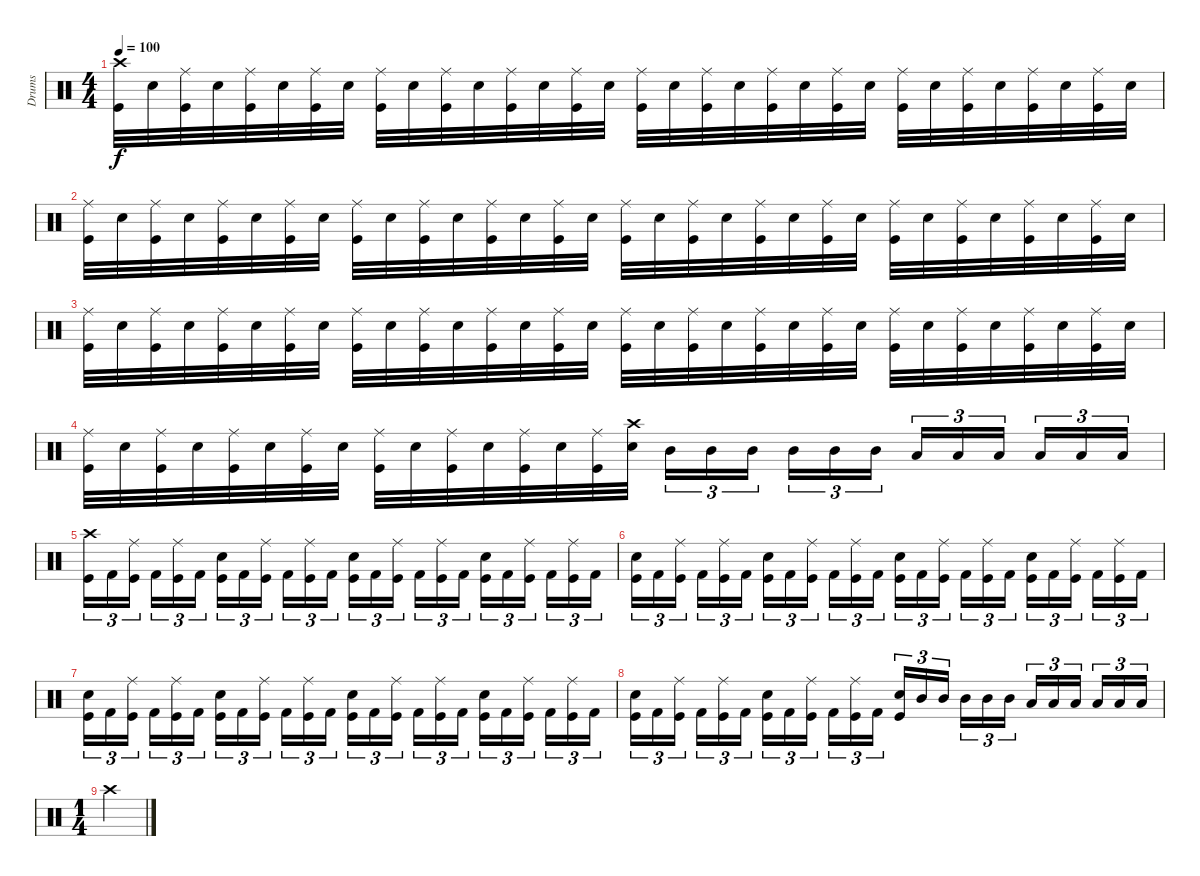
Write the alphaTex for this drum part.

\track ("Drums" "Drums") {instrument percussion}
\staff {score}
\articulation defaults
\ts (4 4)
\tempo 100
\clef neutral
\ks c
("Crash high (hit)" "Kick (hit)").32{dy f} "Snare (hit) 2".32 ("Ride (middle)" "Kick (hit)").32 "Snare (hit) 2".32 ("Ride (middle)" "Kick (hit)").32 "Snare (hit) 2".32 ("Ride (middle)" "Kick (hit)").32 "Snare (hit) 2".32 ("Ride (middle)" "Kick (hit)").32 "Snare (hit) 2".32 ("Ride (middle)" "Kick (hit)").32 "Snare (hit) 2".32 ("Ride (middle)" "Kick (hit)").32 "Snare (hit) 2".32 ("Ride (middle)" "Kick (hit)").32 "Snare (hit) 2".32 ("Ride (middle)" "Kick (hit)").32 "Snare (hit) 2".32 ("Ride (middle)" "Kick (hit)").32 "Snare (hit) 2".32 ("Ride (middle)" "Kick (hit)").32 "Snare (hit) 2".32 ("Ride (middle)" "Kick (hit)").32 "Snare (hit) 2".32 ("Ride (middle)" "Kick (hit)").32 "Snare (hit) 2".32 ("Ride (middle)" "Kick (hit)").32 "Snare (hit) 2".32 ("Ride (middle)" "Kick (hit)").32 "Snare (hit) 2".32 ("Ride (middle)" "Kick (hit)").32 "Snare (hit) 2".32 |
("Ride (middle)" "Kick (hit)").32 "Snare (hit) 2".32 ("Ride (middle)" "Kick (hit)").32 "Snare (hit) 2".32 ("Ride (middle)" "Kick (hit)").32 "Snare (hit) 2".32 ("Ride (middle)" "Kick (hit)").32 "Snare (hit) 2".32 ("Ride (middle)" "Kick (hit)").32 "Snare (hit) 2".32 ("Ride (middle)" "Kick (hit)").32 "Snare (hit) 2".32 ("Ride (middle)" "Kick (hit)").32 "Snare (hit) 2".32 ("Ride (middle)" "Kick (hit)").32 "Snare (hit) 2".32 ("Ride (middle)" "Kick (hit)").32 "Snare (hit) 2".32 ("Ride (middle)" "Kick (hit)").32 "Snare (hit) 2".32 ("Ride (middle)" "Kick (hit)").32 "Snare (hit) 2".32 ("Ride (middle)" "Kick (hit)").32 "Snare (hit) 2".32 ("Ride (middle)" "Kick (hit)").32 "Snare (hit) 2".32 ("Ride (middle)" "Kick (hit)").32 "Snare (hit) 2".32 ("Ride (middle)" "Kick (hit)").32 "Snare (hit) 2".32 ("Ride (middle)" "Kick (hit)").32 "Snare (hit) 2".32 |
("Ride (middle)" "Kick (hit)").32 "Snare (hit) 2".32 ("Ride (middle)" "Kick (hit)").32 "Snare (hit) 2".32 ("Ride (middle)" "Kick (hit)").32 "Snare (hit) 2".32 ("Ride (middle)" "Kick (hit)").32 "Snare (hit) 2".32 ("Ride (middle)" "Kick (hit)").32 "Snare (hit) 2".32 ("Ride (middle)" "Kick (hit)").32 "Snare (hit) 2".32 ("Ride (middle)" "Kick (hit)").32 "Snare (hit) 2".32 ("Ride (middle)" "Kick (hit)").32 "Snare (hit) 2".32 ("Ride (middle)" "Kick (hit)").32 "Snare (hit) 2".32 ("Ride (middle)" "Kick (hit)").32 "Snare (hit) 2".32 ("Ride (middle)" "Kick (hit)").32 "Snare (hit) 2".32 ("Ride (middle)" "Kick (hit)").32 "Snare (hit) 2".32 ("Ride (middle)" "Kick (hit)").32 "Snare (hit) 2".32 ("Ride (middle)" "Kick (hit)").32 "Snare (hit) 2".32 ("Ride (middle)" "Kick (hit)").32 "Snare (hit) 2".32 ("Ride (middle)" "Kick (hit)").32 "Snare (hit) 2".32 |
("Ride (middle)" "Kick (hit)").32 "Snare (hit) 2".32 ("Ride (middle)" "Kick (hit)").32 "Snare (hit) 2".32 ("Ride (middle)" "Kick (hit)").32 "Snare (hit) 2".32 ("Ride (middle)" "Kick (hit)").32 "Snare (hit) 2".32 ("Ride (middle)" "Kick (hit)").32 "Snare (hit) 2".32 ("Ride (middle)" "Kick (hit)").32 "Snare (hit) 2".32 ("Ride (middle)" "Kick (hit)").32 "Snare (hit) 2".32 ("Ride (middle)" "Kick (hit)").32 ("Crash high (hit)" "Snare (hit) 2").32 "Mid Tom (hit)".16{tu (3 2)} "Mid Tom (hit)".16{tu (3 2)} "Mid Tom (hit)".16{tu (3 2)} "Mid Tom (hit)".16{tu (3 2)} "Mid Tom (hit)".16{tu (3 2)} "Mid Tom (hit)".16{tu (3 2)} "Low Floor Tom (hit)".16{tu (3 2)} "Low Floor Tom (hit)".16{tu (3 2)} "Low Floor Tom (hit)".16{tu (3 2)} "Low Floor Tom (hit)".16{tu (3 2)} "Low Floor Tom (hit)".16{tu (3 2)} "Low Floor Tom (hit)".16{tu (3 2)} |
("Crash high (hit)" "Kick (hit)").16{tu (3 2)} "Kick (hit) 2".16{tu (3 2)} ("Ride (middle)" "Kick (hit)").16{tu (3 2)} "Kick (hit) 2".16{tu (3 2)} ("Ride (middle)" "Kick (hit)").16{tu (3 2)} "Kick (hit) 2".16{tu (3 2)} ("Electric Snare (hit)" "Kick (hit)").16{tu (3 2)} "Kick (hit) 2".16{tu (3 2)} ("Ride (middle)" "Kick (hit)").16{tu (3 2)} "Kick (hit) 2".16{tu (3 2)} ("Ride (middle)" "Kick (hit)").16{tu (3 2)} "Kick (hit) 2".16{tu (3 2)} ("Electric Snare (hit)" "Kick (hit)").16{tu (3 2)} "Kick (hit) 2".16{tu (3 2)} ("Ride (middle)" "Kick (hit)").16{tu (3 2)} "Kick (hit) 2".16{tu (3 2)} ("Ride (middle)" "Kick (hit)").16{tu (3 2)} "Kick (hit) 2".16{tu (3 2)} ("Electric Snare (hit)" "Kick (hit)").16{tu (3 2)} "Kick (hit) 2".16{tu (3 2)} ("Ride (middle)" "Kick (hit)").16{tu (3 2)} "Kick (hit) 2".16{tu (3 2)} ("Ride (middle)" "Kick (hit)").16{tu (3 2)} "Kick (hit) 2".16{tu (3 2)} |
("Electric Snare (hit)" "Kick (hit)").16{tu (3 2)} "Kick (hit) 2".16{tu (3 2)} ("Ride (middle)" "Kick (hit)").16{tu (3 2)} "Kick (hit) 2".16{tu (3 2)} ("Ride (middle)" "Kick (hit)").16{tu (3 2)} "Kick (hit) 2".16{tu (3 2)} ("Electric Snare (hit)" "Kick (hit)").16{tu (3 2)} "Kick (hit) 2".16{tu (3 2)} ("Ride (middle)" "Kick (hit)").16{tu (3 2)} "Kick (hit) 2".16{tu (3 2)} ("Ride (middle)" "Kick (hit)").16{tu (3 2)} "Kick (hit) 2".16{tu (3 2)} ("Electric Snare (hit)" "Kick (hit)").16{tu (3 2)} "Kick (hit) 2".16{tu (3 2)} ("Ride (middle)" "Kick (hit)").16{tu (3 2)} "Kick (hit) 2".16{tu (3 2)} ("Ride (middle)" "Kick (hit)").16{tu (3 2)} "Kick (hit) 2".16{tu (3 2)} ("Electric Snare (hit)" "Kick (hit)").16{tu (3 2)} "Kick (hit) 2".16{tu (3 2)} ("Ride (middle)" "Kick (hit)").16{tu (3 2)} "Kick (hit) 2".16{tu (3 2)} ("Ride (middle)" "Kick (hit)").16{tu (3 2)} "Kick (hit) 2".16{tu (3 2)} |
("Electric Snare (hit)" "Kick (hit)").16{tu (3 2)} "Kick (hit) 2".16{tu (3 2)} ("Ride (middle)" "Kick (hit)").16{tu (3 2)} "Kick (hit) 2".16{tu (3 2)} ("Ride (middle)" "Kick (hit)").16{tu (3 2)} "Kick (hit) 2".16{tu (3 2)} ("Electric Snare (hit)" "Kick (hit)").16{tu (3 2)} "Kick (hit) 2".16{tu (3 2)} ("Ride (middle)" "Kick (hit)").16{tu (3 2)} "Kick (hit) 2".16{tu (3 2)} ("Ride (middle)" "Kick (hit)").16{tu (3 2)} "Kick (hit) 2".16{tu (3 2)} ("Electric Snare (hit)" "Kick (hit)").16{tu (3 2)} "Kick (hit) 2".16{tu (3 2)} ("Ride (middle)" "Kick (hit)").16{tu (3 2)} "Kick (hit) 2".16{tu (3 2)} ("Ride (middle)" "Kick (hit)").16{tu (3 2)} "Kick (hit) 2".16{tu (3 2)} ("Electric Snare (hit)" "Kick (hit)").16{tu (3 2)} "Kick (hit) 2".16{tu (3 2)} ("Ride (middle)" "Kick (hit)").16{tu (3 2)} "Kick (hit) 2".16{tu (3 2)} ("Ride (middle)" "Kick (hit)").16{tu (3 2)} "Kick (hit) 2".16{tu (3 2)} |
("Electric Snare (hit)" "Kick (hit)").16{tu (3 2)} "Kick (hit) 2".16{tu (3 2)} ("Ride (middle)" "Kick (hit)").16{tu (3 2)} "Kick (hit) 2".16{tu (3 2)} ("Ride (middle)" "Kick (hit)").16{tu (3 2)} "Kick (hit) 2".16{tu (3 2)} ("Electric Snare (hit)" "Kick (hit)").16{tu (3 2)} "Kick (hit) 2".16{tu (3 2)} ("Ride (middle)" "Kick (hit)").16{tu (3 2)} "Kick (hit) 2".16{tu (3 2)} ("Ride (middle)" "Kick (hit)").16{tu (3 2)} "Kick (hit) 2".16{tu (3 2)} ("Electric Snare (hit)" "Kick (hit)").16{tu (3 2)} "Mid Tom (hit)".16{tu (3 2)} "Mid Tom (hit)".16{tu (3 2)} "Mid Tom (hit)".16{tu (3 2)} "Mid Tom (hit)".16{tu (3 2)} "Mid Tom (hit)".16{tu (3 2)} "Low Floor Tom (hit)".16{tu (3 2)} "Low Floor Tom (hit)".16{tu (3 2)} "Low Floor Tom (hit)".16{tu (3 2)} "Low Floor Tom (hit)".16{tu (3 2)} "Low Floor Tom (hit)".16{tu (3 2)} "Low Floor Tom (hit)".16{tu (3 2)} |
\ts (1 4)
"Crash high (hit)".4
